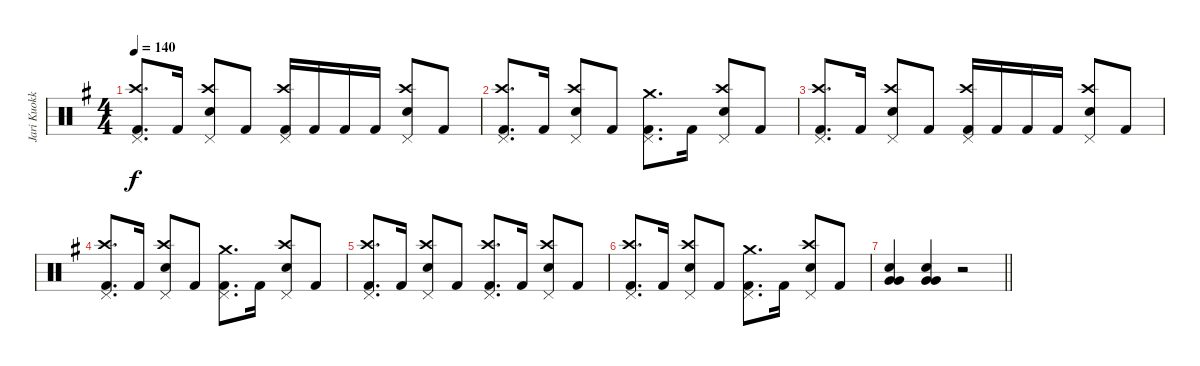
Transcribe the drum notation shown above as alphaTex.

\track ("Jari Kuokkanen" "Jari Kuokk") {instrument percussion}
\staff {score}
\articulation defaults
\ts (4 4)
\tempo 140
\clef neutral
\ks eminor
("Pedal Hi-Hat (hit)" "Crash high (hit)" "Kick (hit) 2").8{d dy f} "Kick (hit) 2".16 ("Pedal Hi-Hat (hit)" "Crash high (hit)" "Snare (hit) 2").8 "Kick (hit) 2".8 ("Pedal Hi-Hat (hit)" "Crash high (hit)" "Kick (hit) 2").16 "Kick (hit) 2".16 "Kick (hit) 2".16 "Kick (hit) 2".16 ("Pedal Hi-Hat (hit)" "Crash high (hit)" "Snare (hit) 2").8 "Kick (hit) 2".8 |
("Crash high (hit)" "Pedal Hi-Hat (hit)" "Kick (hit) 2").8{d} "Kick (hit) 2".16 ("Pedal Hi-Hat (hit)" "Crash high (hit)" "Snare (hit) 2").8 "Kick (hit) 2".8 ("Crash medium (hit)" "Pedal Hi-Hat (hit)" "Kick (hit) 2").8{d} "Kick (hit) 2".16 ("Pedal Hi-Hat (hit)" "Crash high (hit)" "Snare (hit) 2").8 "Kick (hit) 2".8 |
("Crash high (hit)" "Pedal Hi-Hat (hit)" "Kick (hit) 2").8{d} "Kick (hit) 2".16 ("Pedal Hi-Hat (hit)" "Crash high (hit)" "Snare (hit) 2").8 "Kick (hit) 2".8 ("Pedal Hi-Hat (hit)" "Crash high (hit)" "Kick (hit) 2").16 "Kick (hit) 2".16 "Kick (hit) 2".16 "Kick (hit) 2".16 ("Pedal Hi-Hat (hit)" "Crash high (hit)" "Snare (hit) 2").8 "Kick (hit) 2".8 |
("Crash high (hit)" "Pedal Hi-Hat (hit)" "Kick (hit) 2").8{d} "Kick (hit) 2".16 ("Pedal Hi-Hat (hit)" "Crash high (hit)" "Snare (hit) 2").8 "Kick (hit) 2".8 ("Crash medium (hit)" "Pedal Hi-Hat (hit)" "Kick (hit) 2").8{d} "Kick (hit) 2".16 ("Pedal Hi-Hat (hit)" "Crash high (hit)" "Snare (hit) 2").8 "Kick (hit) 2".8 |
("Crash high (hit)" "Pedal Hi-Hat (hit)" "Kick (hit) 2").8{d} "Kick (hit) 2".16 ("Pedal Hi-Hat (hit)" "Crash high (hit)" "Snare (hit) 2").8 "Kick (hit) 2".8 ("Crash high (hit)" "Pedal Hi-Hat (hit)" "Kick (hit) 2").8{d} "Kick (hit) 2".16 ("Pedal Hi-Hat (hit)" "Crash high (hit)" "Snare (hit) 2").8 "Kick (hit) 2".8 |
("Crash high (hit)" "Pedal Hi-Hat (hit)" "Kick (hit) 2").8{d} "Kick (hit) 2".16 ("Pedal Hi-Hat (hit)" "Crash high (hit)" "Snare (hit) 2").8 "Kick (hit) 2".8 ("Crash medium (hit)" "Pedal Hi-Hat (hit)" "Kick (hit) 2").8{d} "Kick (hit) 2".16 ("Pedal Hi-Hat (hit)" "Crash high (hit)" "Snare (hit) 2").8 "Kick (hit) 2".8 |
\barLineRight lightlight
("Snare (hit) 2" "Very Low Tom (hit)" "Very Low Tom (hit)").4 ("Snare (hit) 2" "Very Low Tom (hit)" "Very Low Tom (hit)").4 r.2
